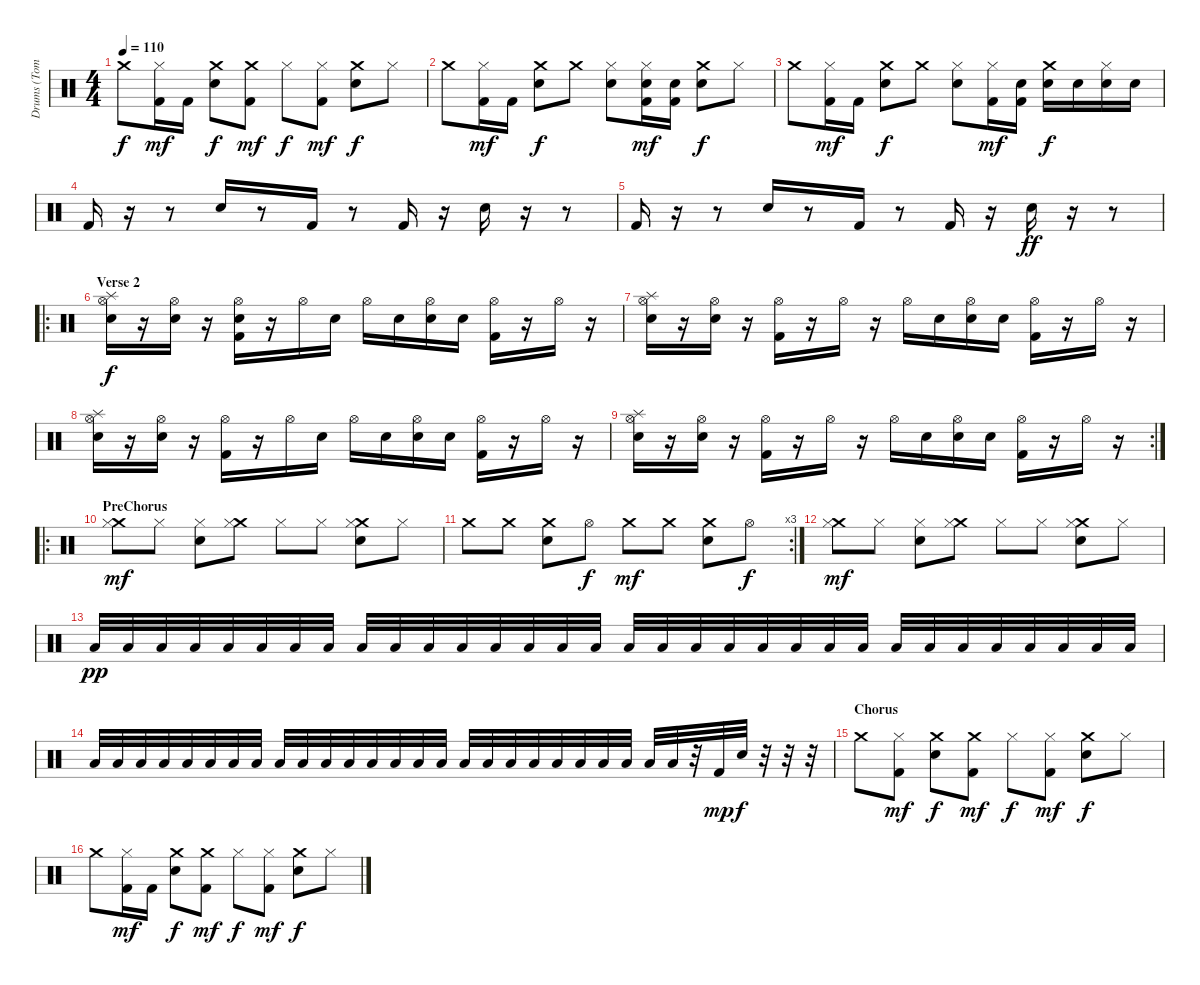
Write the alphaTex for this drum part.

\track ("Drums (Tomate)" "Drums (Tom") {instrument percussion}
\staff {score}
\articulation defaults
\ts (4 4)
\tempo 110
\clef neutral
\ks c "Crash medium (hit)".8{dy f}
("Hi-Hat (closed)" "Kick (hit) 2").16{dy mf} "Kick (hit) 2".16 ("Crash medium (hit)" "Electric Snare (hit)").8{dy f} ("Crash medium (hit)" "Kick (hit) 2").8{dy mf} "Hi-Hat (closed)".8{dy f} ("Hi-Hat (closed)" "Kick (hit) 2").8{dy mf} ("Crash medium (hit)" "Electric Snare (hit)").8{dy f} "Hi-Hat (closed)".8 |
"Crash medium (hit)".8 ("Hi-Hat (closed)" "Kick (hit) 2").16{dy mf} "Kick (hit) 2".16 ("Crash medium (hit)" "Electric Snare (hit)").8{dy f} "Crash medium (hit)".8 ("Hi-Hat (closed)" "Electric Snare (hit)").8 ("Hi-Hat (closed)" "Electric Snare (hit)" "Kick (hit) 2").16{dy mf} ("Electric Snare (hit)" "Kick (hit) 2").16 ("Crash medium (hit)" "Electric Snare (hit)").8{dy f} "Hi-Hat (closed)".8 |
"Crash medium (hit)".8 ("Hi-Hat (closed)" "Kick (hit) 2").16{dy mf} "Kick (hit) 2".16 ("Crash medium (hit)" "Electric Snare (hit)").8{dy f} "Crash medium (hit)".8 ("Hi-Hat (closed)" "Electric Snare (hit)").8 ("Hi-Hat (closed)" "Kick (hit) 2").16{dy mf} ("Electric Snare (hit)" "Kick (hit) 2").16 ("Crash medium (hit)" "Electric Snare (hit)").16{dy f} "Electric Snare (hit)".16 ("Hi-Hat (closed)" "Electric Snare (hit)").16 "Electric Snare (hit)".16 |
"Kick (hit) 2".16 r.16 r.8 "Electric Snare (hit)".16 r.8 "Kick (hit) 2".16 r.8 "Kick (hit) 2".16 r.16 "Electric Snare (hit)".16 r.16 r.8 |
"Kick (hit) 2".16 r.16 r.8 "Electric Snare (hit)".16 r.8 "Kick (hit) 2".16 r.8 "Kick (hit) 2".16 r.16 "Electric Snare (hit)".16{dy ff} r.16 r.8 |
\ro
\section ("" "Verse 2")
("Splash (hit)" "Electric Snare (hit)" "Hi-Hat (open)").16{dy f} r.16 ("Electric Snare (hit)" "Hi-Hat (open)").16 r.16 ("Electric Snare (hit)" "Hi-Hat (open)" "Kick (hit) 2").16 r.16 "Hi-Hat (open)".16 "Electric Snare (hit)".16 "Hi-Hat (open)".16 "Electric Snare (hit)".16 ("Electric Snare (hit)" "Hi-Hat (open)").16 "Electric Snare (hit)".16 ("Hi-Hat (open)" "Kick (hit) 2").16 r.16 "Hi-Hat (open)".16 r.16 |
("Splash (hit)" "Electric Snare (hit)" "Hi-Hat (open)").16 r.16 ("Electric Snare (hit)" "Hi-Hat (open)").16 r.16 ("Hi-Hat (open)" "Kick (hit) 2").16 r.16 "Hi-Hat (open)".16 r.16 "Hi-Hat (open)".16 "Electric Snare (hit)".16 ("Electric Snare (hit)" "Hi-Hat (open)").16 "Electric Snare (hit)".16 ("Hi-Hat (open)" "Kick (hit) 2").16 r.16 "Hi-Hat (open)".16 r.16 |
("Splash (hit)" "Electric Snare (hit)" "Hi-Hat (open)").16 r.16 ("Electric Snare (hit)" "Hi-Hat (open)").16 r.16 ("Hi-Hat (open)" "Kick (hit) 2").16 r.16 "Hi-Hat (open)".16 "Electric Snare (hit)".16 "Hi-Hat (open)".16 "Electric Snare (hit)".16 ("Electric Snare (hit)" "Hi-Hat (open)").16 "Electric Snare (hit)".16 ("Hi-Hat (open)" "Kick (hit) 2").16 r.16 "Hi-Hat (open)".16 r.16 |
\rc 2
("Splash (hit)" "Electric Snare (hit)" "Hi-Hat (open)").16 r.16 ("Electric Snare (hit)" "Hi-Hat (open)").16 r.16 ("Hi-Hat (open)" "Kick (hit) 2").16 r.16 "Hi-Hat (open)".16 r.16 "Hi-Hat (open)".16 "Electric Snare (hit)".16 ("Electric Snare (hit)" "Hi-Hat (open)").16 "Electric Snare (hit)".16 ("Hi-Hat (open)" "Kick (hit) 2").16 r.16 "Hi-Hat (open)".16 r.16 |
\ro
\section ("" "PreChorus")
("Crash medium (hit)" "Hi-Hat (closed)").8{dy mf} "Hi-Hat (closed)".8 ("Hi-Hat (closed)" "Electric Snare (hit)").8 ("Crash medium (hit)" "Hi-Hat (closed)").8 "Hi-Hat (closed)".8 "Hi-Hat (closed)".8 ("Crash medium (hit)" "Hi-Hat (closed)" "Electric Snare (hit)").8 "Hi-Hat (closed)".8 |
\rc 3 "Crash medium (hit)".8 "Crash medium (hit)".8
("Crash medium (hit)" "Electric Snare (hit)").8 "Hi-Hat (open)".8{dy f} "Crash medium (hit)".8{dy mf} "Crash medium (hit)".8 ("Crash medium (hit)" "Electric Snare (hit)").8 "Hi-Hat (open)".8{dy f} |
("Crash medium (hit)" "Hi-Hat (closed)").8{dy mf} "Hi-Hat (closed)".8 ("Hi-Hat (closed)" "Electric Snare (hit)").8 ("Crash medium (hit)" "Hi-Hat (closed)").8 "Hi-Hat (closed)".8 "Hi-Hat (closed)".8 ("Crash medium (hit)" "Hi-Hat (closed)" "Electric Snare (hit)").8 "Hi-Hat (closed)".8 |
"Low Floor Tom (hit)".32{dy pp} "Low Floor Tom (hit)".32 "Low Floor Tom (hit)".32 "Low Floor Tom (hit)".32 "Low Floor Tom (hit)".32 "Low Floor Tom (hit)".32 "Low Floor Tom (hit)".32 "Low Floor Tom (hit)".32 "Low Floor Tom (hit)".32 "Low Floor Tom (hit)".32 "Low Floor Tom (hit)".32 "Low Floor Tom (hit)".32 "Low Floor Tom (hit)".32 "Low Floor Tom (hit)".32 "Low Floor Tom (hit)".32 "Low Floor Tom (hit)".32 "Low Floor Tom (hit)".32 "Low Floor Tom (hit)".32 "Low Floor Tom (hit)".32 "Low Floor Tom (hit)".32 "Low Floor Tom (hit)".32 "Low Floor Tom (hit)".32 "Low Floor Tom (hit)".32 "Low Floor Tom (hit)".32 "Low Floor Tom (hit)".32 "Low Floor Tom (hit)".32 "Low Floor Tom (hit)".32 "Low Floor Tom (hit)".32 "Low Floor Tom (hit)".32 "Low Floor Tom (hit)".32 "Low Floor Tom (hit)".32 "Low Floor Tom (hit)".32 |
"Low Floor Tom (hit)".32 "Low Floor Tom (hit)".32 "Low Floor Tom (hit)".32 "Low Floor Tom (hit)".32 "Low Floor Tom (hit)".32 "Low Floor Tom (hit)".32 "Low Floor Tom (hit)".32 "Low Floor Tom (hit)".32 "Low Floor Tom (hit)".32 "Low Floor Tom (hit)".32 "Low Floor Tom (hit)".32 "Low Floor Tom (hit)".32 "Low Floor Tom (hit)".32 "Low Floor Tom (hit)".32 "Low Floor Tom (hit)".32 "Low Floor Tom (hit)".32 "Low Floor Tom (hit)".32 "Low Floor Tom (hit)".32 "Low Floor Tom (hit)".32 "Low Floor Tom (hit)".32 "Low Floor Tom (hit)".32 "Low Floor Tom (hit)".32 "Low Floor Tom (hit)".32 "Low Floor Tom (hit)".32 "Low Floor Tom (hit)".32 "Low Floor Tom (hit)".32 r.32 "Kick (hit) 2".32{dy mp} "Electric Snare (hit)".32{dy f} r.32 r.32 r.32 |
\section ("" "Chorus")
"Crash medium (hit)".8 ("Hi-Hat (closed)" "Kick (hit) 2").8{dy mf} ("Crash medium (hit)" "Electric Snare (hit)").8{dy f} ("Crash medium (hit)" "Kick (hit) 2").8{dy mf} "Hi-Hat (closed)".8{dy f} ("Hi-Hat (closed)" "Kick (hit) 2").8{dy mf} ("Crash medium (hit)" "Electric Snare (hit)").8{dy f} "Hi-Hat (closed)".8 |
"Crash medium (hit)".8 ("Hi-Hat (closed)" "Kick (hit) 2").16{dy mf} "Kick (hit) 2".16 ("Crash medium (hit)" "Electric Snare (hit)").8{dy f} ("Crash medium (hit)" "Kick (hit) 2").8{dy mf} "Hi-Hat (closed)".8{dy f} ("Hi-Hat (closed)" "Kick (hit) 2").8{dy mf} ("Crash medium (hit)" "Electric Snare (hit)").8{dy f} "Hi-Hat (closed)".8
